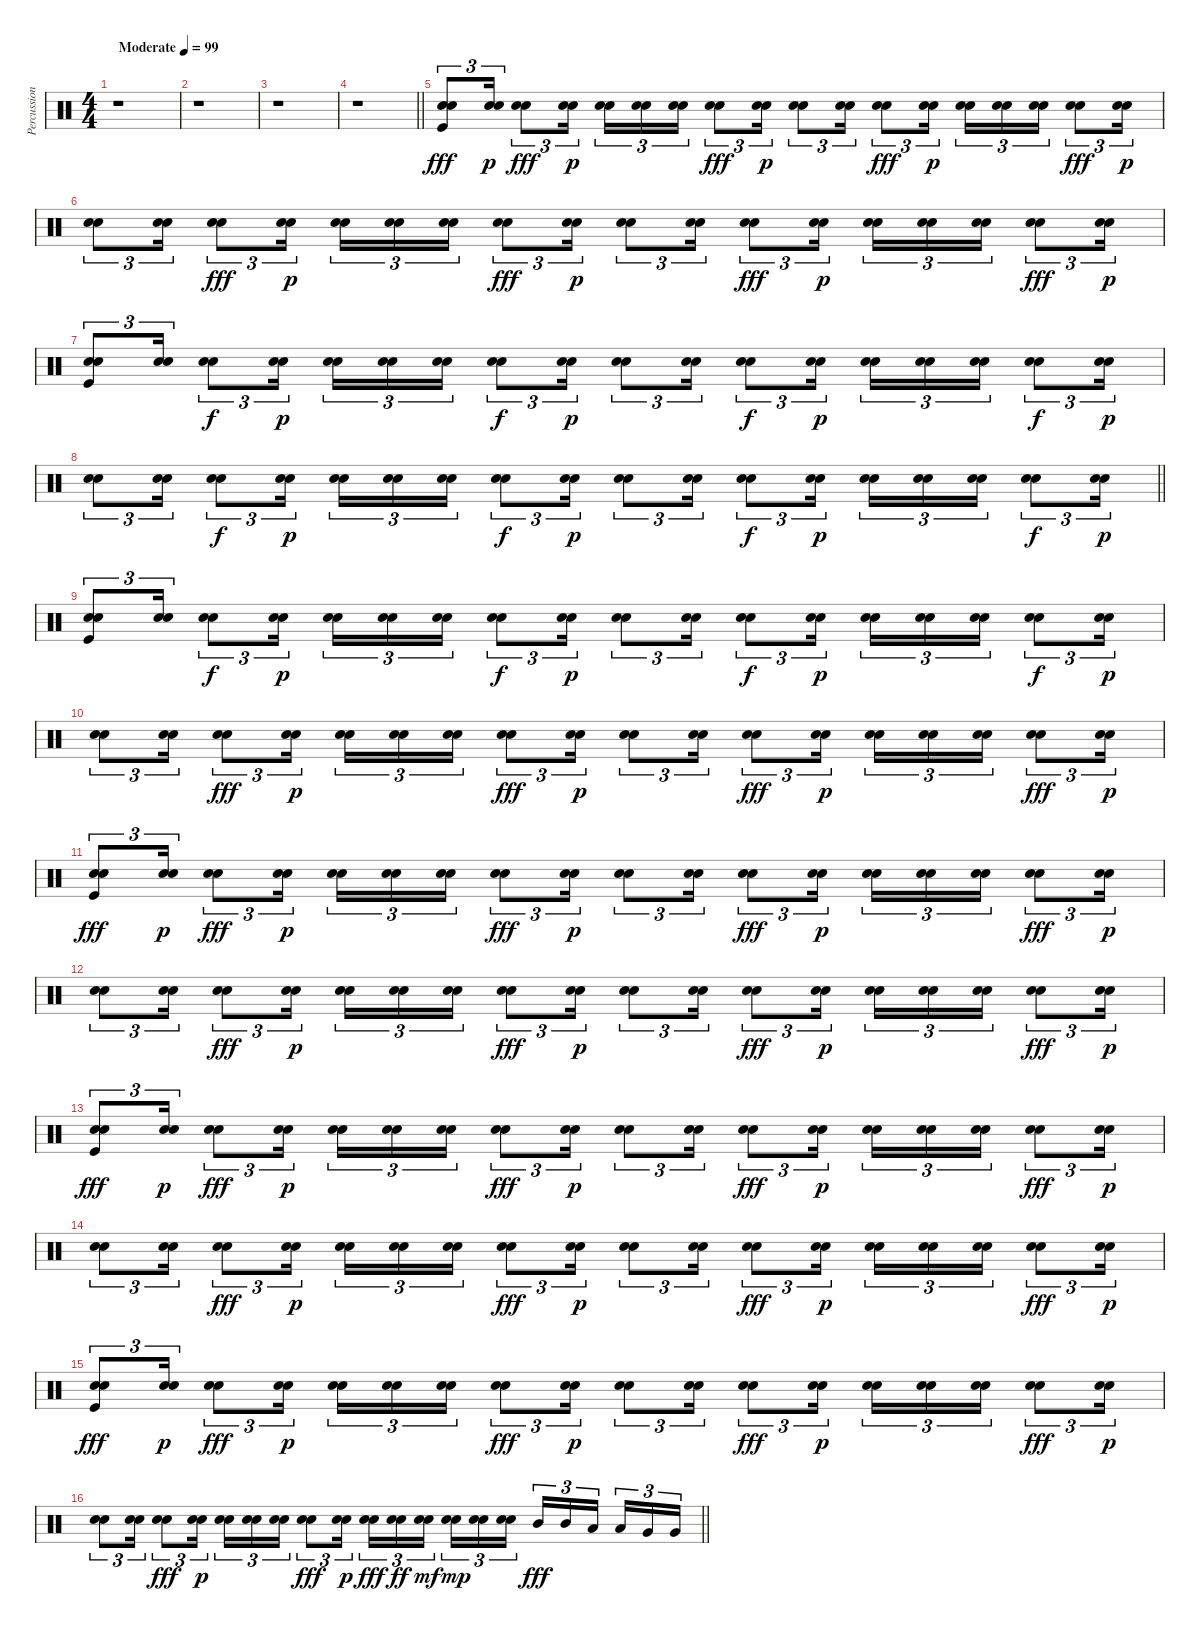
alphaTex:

\track ("Percussion" "Percussion") {instrument percussion}
\staff {score}
\articulation defaults
\ts (4 4)
\tempo (99 "Moderate")
\clef neutral
\ks c
r.1{dy fff} |
r.1 |
r.1 |
\barLineRight lightlight
r.1 |
("Snare (hit) 2" "Electric Snare (hit)" "Kick (hit)").8{tu (3 2)} ("Snare (hit) 2" "Electric Snare (hit)").16{tu (3 2) dy p} ("Snare (hit) 2" "Electric Snare (hit)").8{tu (3 2) dy fff} ("Snare (hit) 2" "Electric Snare (hit)").16{tu (3 2) dy p} ("Snare (hit) 2" "Electric Snare (hit)").16{tu (3 2)} ("Snare (hit) 2" "Electric Snare (hit)").16{tu (3 2)} ("Snare (hit) 2" "Electric Snare (hit)").16{tu (3 2)} ("Snare (hit) 2" "Electric Snare (hit)").8{tu (3 2) dy fff} ("Snare (hit) 2" "Electric Snare (hit)").16{tu (3 2) dy p} ("Snare (hit) 2" "Electric Snare (hit)").8{tu (3 2)} ("Snare (hit) 2" "Electric Snare (hit)").16{tu (3 2)} ("Snare (hit) 2" "Electric Snare (hit)").8{tu (3 2) dy fff} ("Snare (hit) 2" "Electric Snare (hit)").16{tu (3 2) dy p} ("Snare (hit) 2" "Electric Snare (hit)").16{tu (3 2)} ("Snare (hit) 2" "Electric Snare (hit)").16{tu (3 2)} ("Snare (hit) 2" "Electric Snare (hit)").16{tu (3 2)} ("Snare (hit) 2" "Electric Snare (hit)").8{tu (3 2) dy fff} ("Snare (hit) 2" "Electric Snare (hit)").16{tu (3 2) dy p} |
("Snare (hit) 2" "Electric Snare (hit)").8{tu (3 2)} ("Snare (hit) 2" "Electric Snare (hit)").16{tu (3 2)} ("Snare (hit) 2" "Electric Snare (hit)").8{tu (3 2) dy fff} ("Snare (hit) 2" "Electric Snare (hit)").16{tu (3 2) dy p} ("Snare (hit) 2" "Electric Snare (hit)").16{tu (3 2)} ("Snare (hit) 2" "Electric Snare (hit)").16{tu (3 2)} ("Snare (hit) 2" "Electric Snare (hit)").16{tu (3 2)} ("Snare (hit) 2" "Electric Snare (hit)").8{tu (3 2) dy fff} ("Snare (hit) 2" "Electric Snare (hit)").16{tu (3 2) dy p} ("Snare (hit) 2" "Electric Snare (hit)").8{tu (3 2)} ("Snare (hit) 2" "Electric Snare (hit)").16{tu (3 2)} ("Snare (hit) 2" "Electric Snare (hit)").8{tu (3 2) dy fff} ("Snare (hit) 2" "Electric Snare (hit)").16{tu (3 2) dy p} ("Snare (hit) 2" "Electric Snare (hit)").16{tu (3 2)} ("Snare (hit) 2" "Electric Snare (hit)").16{tu (3 2)} ("Snare (hit) 2" "Electric Snare (hit)").16{tu (3 2)} ("Snare (hit) 2" "Electric Snare (hit)").8{tu (3 2) dy fff} ("Snare (hit) 2" "Electric Snare (hit)").16{tu (3 2) dy p} |
("Snare (hit) 2" "Electric Snare (hit)" "Kick (hit)").8{tu (3 2)} ("Snare (hit) 2" "Electric Snare (hit)").16{tu (3 2)} ("Snare (hit) 2" "Electric Snare (hit)").8{tu (3 2) dy f} ("Snare (hit) 2" "Electric Snare (hit)").16{tu (3 2) dy p} ("Snare (hit) 2" "Electric Snare (hit)").16{tu (3 2)} ("Snare (hit) 2" "Electric Snare (hit)").16{tu (3 2)} ("Snare (hit) 2" "Electric Snare (hit)").16{tu (3 2)} ("Snare (hit) 2" "Electric Snare (hit)").8{tu (3 2) dy f} ("Snare (hit) 2" "Electric Snare (hit)").16{tu (3 2) dy p} ("Snare (hit) 2" "Electric Snare (hit)").8{tu (3 2)} ("Snare (hit) 2" "Electric Snare (hit)").16{tu (3 2)} ("Snare (hit) 2" "Electric Snare (hit)").8{tu (3 2) dy f} ("Snare (hit) 2" "Electric Snare (hit)").16{tu (3 2) dy p} ("Snare (hit) 2" "Electric Snare (hit)").16{tu (3 2)} ("Snare (hit) 2" "Electric Snare (hit)").16{tu (3 2)} ("Snare (hit) 2" "Electric Snare (hit)").16{tu (3 2)} ("Snare (hit) 2" "Electric Snare (hit)").8{tu (3 2) dy f} ("Snare (hit) 2" "Electric Snare (hit)").16{tu (3 2) dy p} |
\barLineRight lightlight
("Snare (hit) 2" "Electric Snare (hit)").8{tu (3 2)} ("Snare (hit) 2" "Electric Snare (hit)").16{tu (3 2)} ("Snare (hit) 2" "Electric Snare (hit)").8{tu (3 2) dy f} ("Snare (hit) 2" "Electric Snare (hit)").16{tu (3 2) dy p} ("Snare (hit) 2" "Electric Snare (hit)").16{tu (3 2)} ("Snare (hit) 2" "Electric Snare (hit)").16{tu (3 2)} ("Snare (hit) 2" "Electric Snare (hit)").16{tu (3 2)} ("Snare (hit) 2" "Electric Snare (hit)").8{tu (3 2) dy f} ("Snare (hit) 2" "Electric Snare (hit)").16{tu (3 2) dy p} ("Snare (hit) 2" "Electric Snare (hit)").8{tu (3 2)} ("Snare (hit) 2" "Electric Snare (hit)").16{tu (3 2)} ("Snare (hit) 2" "Electric Snare (hit)").8{tu (3 2) dy f} ("Snare (hit) 2" "Electric Snare (hit)").16{tu (3 2) dy p} ("Snare (hit) 2" "Electric Snare (hit)").16{tu (3 2)} ("Snare (hit) 2" "Electric Snare (hit)").16{tu (3 2)} ("Snare (hit) 2" "Electric Snare (hit)").16{tu (3 2)} ("Snare (hit) 2" "Electric Snare (hit)").8{tu (3 2) dy f} ("Snare (hit) 2" "Electric Snare (hit)").16{tu (3 2) dy p} |
("Snare (hit) 2" "Electric Snare (hit)" "Kick (hit)").8{tu (3 2)} ("Snare (hit) 2" "Electric Snare (hit)").16{tu (3 2)} ("Snare (hit) 2" "Electric Snare (hit)").8{tu (3 2) dy f} ("Snare (hit) 2" "Electric Snare (hit)").16{tu (3 2) dy p} ("Snare (hit) 2" "Electric Snare (hit)").16{tu (3 2)} ("Snare (hit) 2" "Electric Snare (hit)").16{tu (3 2)} ("Snare (hit) 2" "Electric Snare (hit)").16{tu (3 2)} ("Snare (hit) 2" "Electric Snare (hit)").8{tu (3 2) dy f} ("Snare (hit) 2" "Electric Snare (hit)").16{tu (3 2) dy p} ("Snare (hit) 2" "Electric Snare (hit)").8{tu (3 2)} ("Snare (hit) 2" "Electric Snare (hit)").16{tu (3 2)} ("Snare (hit) 2" "Electric Snare (hit)").8{tu (3 2) dy f} ("Snare (hit) 2" "Electric Snare (hit)").16{tu (3 2) dy p} ("Snare (hit) 2" "Electric Snare (hit)").16{tu (3 2)} ("Snare (hit) 2" "Electric Snare (hit)").16{tu (3 2)} ("Snare (hit) 2" "Electric Snare (hit)").16{tu (3 2)} ("Snare (hit) 2" "Electric Snare (hit)").8{tu (3 2) dy f} ("Snare (hit) 2" "Electric Snare (hit)").16{tu (3 2) dy p} |
("Snare (hit) 2" "Electric Snare (hit)").8{tu (3 2)} ("Snare (hit) 2" "Electric Snare (hit)").16{tu (3 2)} ("Snare (hit) 2" "Electric Snare (hit)").8{tu (3 2) dy fff} ("Snare (hit) 2" "Electric Snare (hit)").16{tu (3 2) dy p} ("Snare (hit) 2" "Electric Snare (hit)").16{tu (3 2)} ("Snare (hit) 2" "Electric Snare (hit)").16{tu (3 2)} ("Snare (hit) 2" "Electric Snare (hit)").16{tu (3 2)} ("Snare (hit) 2" "Electric Snare (hit)").8{tu (3 2) dy fff} ("Snare (hit) 2" "Electric Snare (hit)").16{tu (3 2) dy p} ("Snare (hit) 2" "Electric Snare (hit)").8{tu (3 2)} ("Snare (hit) 2" "Electric Snare (hit)").16{tu (3 2)} ("Snare (hit) 2" "Electric Snare (hit)").8{tu (3 2) dy fff} ("Snare (hit) 2" "Electric Snare (hit)").16{tu (3 2) dy p} ("Snare (hit) 2" "Electric Snare (hit)").16{tu (3 2)} ("Snare (hit) 2" "Electric Snare (hit)").16{tu (3 2)} ("Snare (hit) 2" "Electric Snare (hit)").16{tu (3 2)} ("Snare (hit) 2" "Electric Snare (hit)").8{tu (3 2) dy fff} ("Snare (hit) 2" "Electric Snare (hit)").16{tu (3 2) dy p} |
("Snare (hit) 2" "Electric Snare (hit)" "Kick (hit)").8{tu (3 2) dy fff} ("Snare (hit) 2" "Electric Snare (hit)").16{tu (3 2) dy p} ("Snare (hit) 2" "Electric Snare (hit)").8{tu (3 2) dy fff} ("Snare (hit) 2" "Electric Snare (hit)").16{tu (3 2) dy p} ("Snare (hit) 2" "Electric Snare (hit)").16{tu (3 2)} ("Snare (hit) 2" "Electric Snare (hit)").16{tu (3 2)} ("Snare (hit) 2" "Electric Snare (hit)").16{tu (3 2)} ("Snare (hit) 2" "Electric Snare (hit)").8{tu (3 2) dy fff} ("Snare (hit) 2" "Electric Snare (hit)").16{tu (3 2) dy p} ("Snare (hit) 2" "Electric Snare (hit)").8{tu (3 2)} ("Snare (hit) 2" "Electric Snare (hit)").16{tu (3 2)} ("Snare (hit) 2" "Electric Snare (hit)").8{tu (3 2) dy fff} ("Snare (hit) 2" "Electric Snare (hit)").16{tu (3 2) dy p} ("Snare (hit) 2" "Electric Snare (hit)").16{tu (3 2)} ("Snare (hit) 2" "Electric Snare (hit)").16{tu (3 2)} ("Snare (hit) 2" "Electric Snare (hit)").16{tu (3 2)} ("Snare (hit) 2" "Electric Snare (hit)").8{tu (3 2) dy fff} ("Snare (hit) 2" "Electric Snare (hit)").16{tu (3 2) dy p} |
("Snare (hit) 2" "Electric Snare (hit)").8{tu (3 2)} ("Snare (hit) 2" "Electric Snare (hit)").16{tu (3 2)} ("Snare (hit) 2" "Electric Snare (hit)").8{tu (3 2) dy fff} ("Snare (hit) 2" "Electric Snare (hit)").16{tu (3 2) dy p} ("Snare (hit) 2" "Electric Snare (hit)").16{tu (3 2)} ("Snare (hit) 2" "Electric Snare (hit)").16{tu (3 2)} ("Snare (hit) 2" "Electric Snare (hit)").16{tu (3 2)} ("Snare (hit) 2" "Electric Snare (hit)").8{tu (3 2) dy fff} ("Snare (hit) 2" "Electric Snare (hit)").16{tu (3 2) dy p} ("Snare (hit) 2" "Electric Snare (hit)").8{tu (3 2)} ("Snare (hit) 2" "Electric Snare (hit)").16{tu (3 2)} ("Snare (hit) 2" "Electric Snare (hit)").8{tu (3 2) dy fff} ("Snare (hit) 2" "Electric Snare (hit)").16{tu (3 2) dy p} ("Snare (hit) 2" "Electric Snare (hit)").16{tu (3 2)} ("Snare (hit) 2" "Electric Snare (hit)").16{tu (3 2)} ("Snare (hit) 2" "Electric Snare (hit)").16{tu (3 2)} ("Snare (hit) 2" "Electric Snare (hit)").8{tu (3 2) dy fff} ("Snare (hit) 2" "Electric Snare (hit)").16{tu (3 2) dy p} |
("Snare (hit) 2" "Electric Snare (hit)" "Kick (hit)").8{tu (3 2) dy fff} ("Snare (hit) 2" "Electric Snare (hit)").16{tu (3 2) dy p} ("Snare (hit) 2" "Electric Snare (hit)").8{tu (3 2) dy fff} ("Snare (hit) 2" "Electric Snare (hit)").16{tu (3 2) dy p} ("Snare (hit) 2" "Electric Snare (hit)").16{tu (3 2)} ("Snare (hit) 2" "Electric Snare (hit)").16{tu (3 2)} ("Snare (hit) 2" "Electric Snare (hit)").16{tu (3 2)} ("Snare (hit) 2" "Electric Snare (hit)").8{tu (3 2) dy fff} ("Snare (hit) 2" "Electric Snare (hit)").16{tu (3 2) dy p} ("Snare (hit) 2" "Electric Snare (hit)").8{tu (3 2)} ("Snare (hit) 2" "Electric Snare (hit)").16{tu (3 2)} ("Snare (hit) 2" "Electric Snare (hit)").8{tu (3 2) dy fff} ("Snare (hit) 2" "Electric Snare (hit)").16{tu (3 2) dy p} ("Snare (hit) 2" "Electric Snare (hit)").16{tu (3 2)} ("Snare (hit) 2" "Electric Snare (hit)").16{tu (3 2)} ("Snare (hit) 2" "Electric Snare (hit)").16{tu (3 2)} ("Snare (hit) 2" "Electric Snare (hit)").8{tu (3 2) dy fff} ("Snare (hit) 2" "Electric Snare (hit)").16{tu (3 2) dy p} |
("Snare (hit) 2" "Electric Snare (hit)").8{tu (3 2)} ("Snare (hit) 2" "Electric Snare (hit)").16{tu (3 2)} ("Snare (hit) 2" "Electric Snare (hit)").8{tu (3 2) dy fff} ("Snare (hit) 2" "Electric Snare (hit)").16{tu (3 2) dy p} ("Snare (hit) 2" "Electric Snare (hit)").16{tu (3 2)} ("Snare (hit) 2" "Electric Snare (hit)").16{tu (3 2)} ("Snare (hit) 2" "Electric Snare (hit)").16{tu (3 2)} ("Snare (hit) 2" "Electric Snare (hit)").8{tu (3 2) dy fff} ("Snare (hit) 2" "Electric Snare (hit)").16{tu (3 2) dy p} ("Snare (hit) 2" "Electric Snare (hit)").8{tu (3 2)} ("Snare (hit) 2" "Electric Snare (hit)").16{tu (3 2)} ("Snare (hit) 2" "Electric Snare (hit)").8{tu (3 2) dy fff} ("Snare (hit) 2" "Electric Snare (hit)").16{tu (3 2) dy p} ("Snare (hit) 2" "Electric Snare (hit)").16{tu (3 2)} ("Snare (hit) 2" "Electric Snare (hit)").16{tu (3 2)} ("Snare (hit) 2" "Electric Snare (hit)").16{tu (3 2)} ("Snare (hit) 2" "Electric Snare (hit)").8{tu (3 2) dy fff} ("Snare (hit) 2" "Electric Snare (hit)").16{tu (3 2) dy p} |
("Snare (hit) 2" "Electric Snare (hit)" "Kick (hit)").8{tu (3 2) dy fff} ("Snare (hit) 2" "Electric Snare (hit)").16{tu (3 2) dy p} ("Snare (hit) 2" "Electric Snare (hit)").8{tu (3 2) dy fff} ("Snare (hit) 2" "Electric Snare (hit)").16{tu (3 2) dy p} ("Snare (hit) 2" "Electric Snare (hit)").16{tu (3 2)} ("Snare (hit) 2" "Electric Snare (hit)").16{tu (3 2)} ("Snare (hit) 2" "Electric Snare (hit)").16{tu (3 2)} ("Snare (hit) 2" "Electric Snare (hit)").8{tu (3 2) dy fff} ("Snare (hit) 2" "Electric Snare (hit)").16{tu (3 2) dy p} ("Snare (hit) 2" "Electric Snare (hit)").8{tu (3 2)} ("Snare (hit) 2" "Electric Snare (hit)").16{tu (3 2)} ("Snare (hit) 2" "Electric Snare (hit)").8{tu (3 2) dy fff} ("Snare (hit) 2" "Electric Snare (hit)").16{tu (3 2) dy p} ("Snare (hit) 2" "Electric Snare (hit)").16{tu (3 2)} ("Snare (hit) 2" "Electric Snare (hit)").16{tu (3 2)} ("Snare (hit) 2" "Electric Snare (hit)").16{tu (3 2)} ("Snare (hit) 2" "Electric Snare (hit)").8{tu (3 2) dy fff} ("Snare (hit) 2" "Electric Snare (hit)").16{tu (3 2) dy p} |
\barLineRight lightlight
("Snare (hit) 2" "Electric Snare (hit)").8{tu (3 2)} ("Snare (hit) 2" "Electric Snare (hit)").16{tu (3 2)} ("Snare (hit) 2" "Electric Snare (hit)").8{tu (3 2) dy fff} ("Snare (hit) 2" "Electric Snare (hit)").16{tu (3 2) dy p} ("Snare (hit) 2" "Electric Snare (hit)").16{tu (3 2)} ("Snare (hit) 2" "Electric Snare (hit)").16{tu (3 2)} ("Snare (hit) 2" "Electric Snare (hit)").16{tu (3 2)} ("Snare (hit) 2" "Electric Snare (hit)").8{tu (3 2) dy fff} ("Snare (hit) 2" "Electric Snare (hit)").16{tu (3 2) dy p} ("Snare (hit) 2" "Electric Snare (hit)").16{tu (3 2) dy fff} ("Snare (hit) 2" "Electric Snare (hit)").16{tu (3 2) dy ff} ("Snare (hit) 2" "Electric Snare (hit)").16{tu (3 2) dy mf beam splitsecondary} ("Snare (hit) 2" "Electric Snare (hit)").16{tu (3 2) dy mp} ("Snare (hit) 2" "Electric Snare (hit)").16{tu (3 2)} ("Snare (hit) 2" "Electric Snare (hit)").16{tu (3 2)} "Mid Tom (hit)".16{tu (3 2) dy fff} "Mid Tom (hit)".16{tu (3 2)} "Low Tom (hit)".16{tu (3 2) beam splitsecondary} "Low Tom (hit)".16{tu (3 2)} "Very Low Tom (hit)".16{tu (3 2)} "Very Low Tom (hit)".16{tu (3 2)}
